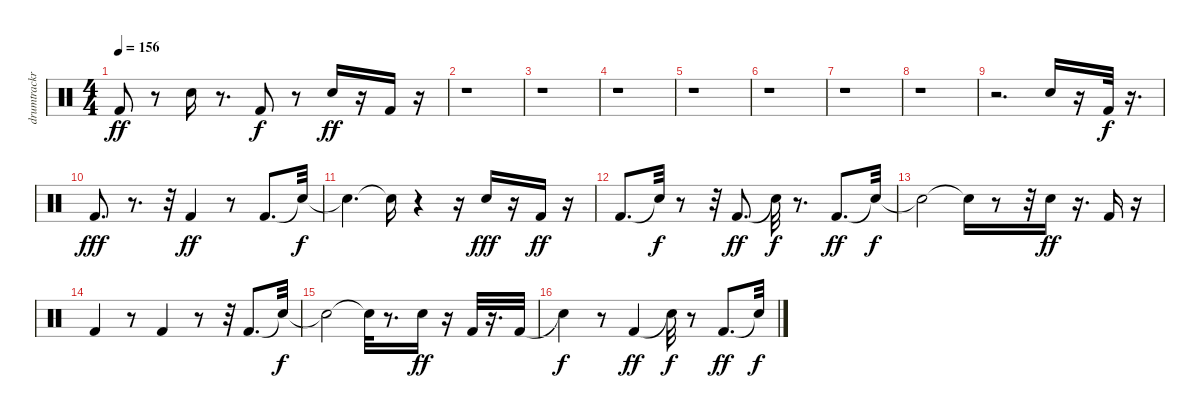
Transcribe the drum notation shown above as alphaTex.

\track ("drumtrackr " "drumtrackr") {instrument percussion}
\staff {score}
\articulation defaults
\ts (4 4)
\tempo 156
\clef neutral
\ks c "Kick (hit) 2".8{dy ff}
r.8 "Snare (hit) 2".16 r.8{d} "Kick (hit) 2".8{dy f} r.8 "Snare (hit) 2".16{dy ff} r.16 "Kick (hit) 2".16 r.16 |
r.1 |
r.1 |
r.1 |
r.1 |
r.1 |
r.1 |
r.1 |
r.2{d} "Snare (hit) 2".16 r.16 "Kick (hit) 2".32{dy f} r.16{d} |
"Kick (hit) 2".8{d dy fff} r.8{d} r.32 "Kick (hit) 2".4{dy ff} r.8 "Kick (hit) 2".8{d} "Snare (hit)"{t}.32{dy f} |
"Snare (hit)"{t}.4{d} "Snare (hit)"{t}.16 r.4 r.16 "Snare (hit) 2".16{dy fff} r.16 "Kick (hit) 2".16{dy ff} r.16 |
"Kick (hit) 2".8{d} "Snare (hit)"{t}.32{dy f} r.8 r.32 "Kick (hit) 2".8{d dy ff} "Snare (hit)"{t}.32{dy f} r.8{d} "Kick (hit) 2".8{d dy ff} "Snare (hit)"{t}.32{dy f} |
"Snare (hit)"{t}.2 "Snare (hit)"{t}.16 r.8 r.32 "Snare (hit) 2".16{dy ff} r.16{d} "Kick (hit) 2".16 r.16 |
"Kick (hit) 2".4 r.8 "Kick (hit) 2".4 r.8 r.32 "Kick (hit) 2".8{d} "Snare (hit)"{t}.32{dy f} |
"Snare (hit)"{t}.2 "Snare (hit)"{t}.32 r.8{d} "Snare (hit) 2".16{dy ff} r.16 "Kick (hit) 2".32 r.16{d} "Kick (hit) 2".32 |
"Snare (hit)"{t}.4{dy f} r.8 "Kick (hit) 2".4{dy ff} "Snare (hit)"{t}.32{dy f} r.8 "Kick (hit) 2".8{d dy ff} "Snare (hit)"{t}.32{dy f}
